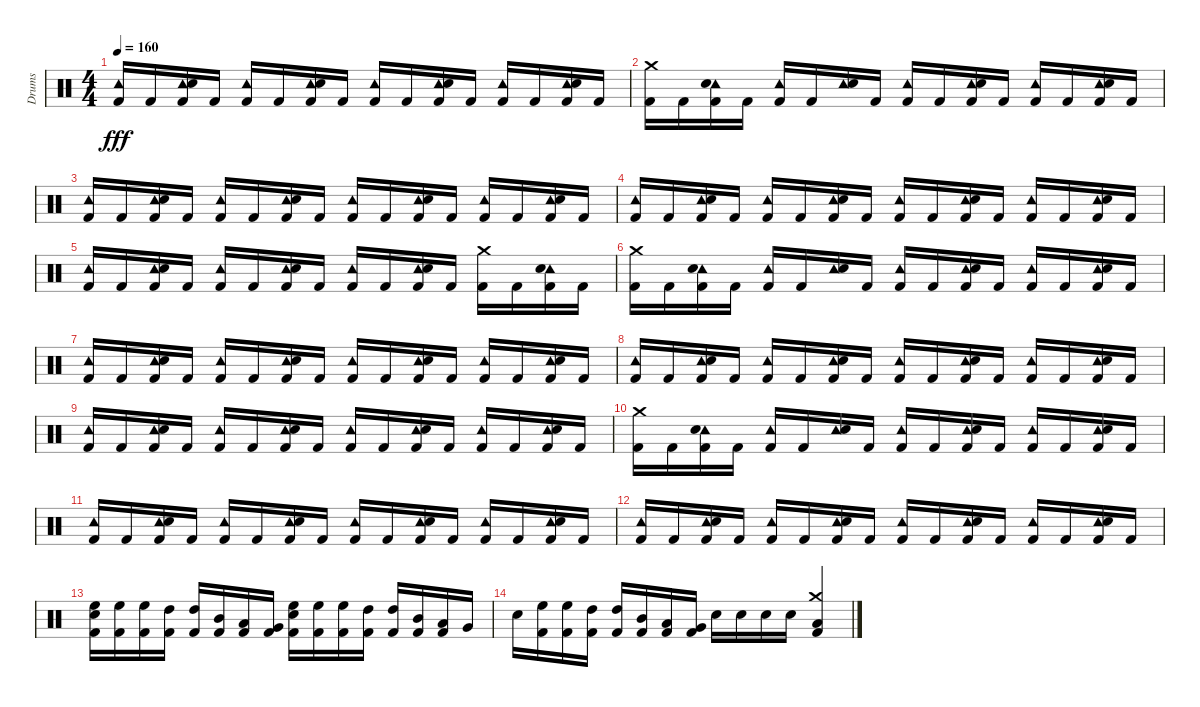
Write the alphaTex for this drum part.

\track ("Drums" "Drums") {instrument percussion}
\staff {score}
\articulation defaults
\ts (4 4)
\tempo 160
\clef neutral
\ks c
("Kick (hit) 2" "Tambourine (hit)").16{dy fff} "Kick (hit) 2".16 ("Kick (hit) 2" "Tambourine (hit)" "Electric Snare (hit)").16 "Kick (hit) 2".16 ("Kick (hit) 2" "Tambourine (hit)").16 "Kick (hit) 2".16 ("Kick (hit) 2" "Tambourine (hit)" "Electric Snare (hit)").16 "Kick (hit) 2".16 ("Kick (hit) 2" "Tambourine (hit)").16 "Kick (hit) 2".16 ("Kick (hit) 2" "Tambourine (hit)" "Electric Snare (hit)").16 "Kick (hit) 2".16 ("Kick (hit) 2" "Tambourine (hit)").16 "Kick (hit) 2".16 ("Kick (hit) 2" "Tambourine (hit)" "Electric Snare (hit)").16 "Kick (hit) 2".16 |
("Crash medium (hit)" "Kick (hit) 2").16 "Kick (hit) 2".16 ("Kick (hit) 2" "Tambourine (hit)" "Electric Snare (hit)").16 "Kick (hit) 2".16 ("Kick (hit) 2" "Tambourine (hit)").16 "Kick (hit) 2".16 ("Tambourine (hit)" "Electric Snare (hit)").16 "Kick (hit) 2".16 ("Kick (hit) 2" "Tambourine (hit)").16 "Kick (hit) 2".16 ("Kick (hit) 2" "Tambourine (hit)" "Electric Snare (hit)").16 "Kick (hit) 2".16 ("Kick (hit) 2" "Tambourine (hit)").16 "Kick (hit) 2".16 ("Kick (hit) 2" "Tambourine (hit)" "Electric Snare (hit)").16 "Kick (hit) 2".16 |
("Kick (hit) 2" "Tambourine (hit)").16 "Kick (hit) 2".16 ("Kick (hit) 2" "Tambourine (hit)" "Electric Snare (hit)").16 "Kick (hit) 2".16 ("Kick (hit) 2" "Tambourine (hit)").16 "Kick (hit) 2".16 ("Kick (hit) 2" "Tambourine (hit)" "Electric Snare (hit)").16 "Kick (hit) 2".16 ("Kick (hit) 2" "Tambourine (hit)").16 "Kick (hit) 2".16 ("Kick (hit) 2" "Tambourine (hit)" "Electric Snare (hit)").16 "Kick (hit) 2".16 ("Kick (hit) 2" "Tambourine (hit)").16 "Kick (hit) 2".16 ("Kick (hit) 2" "Tambourine (hit)" "Electric Snare (hit)").16 "Kick (hit) 2".16 |
("Kick (hit) 2" "Tambourine (hit)").16 "Kick (hit) 2".16 ("Kick (hit) 2" "Tambourine (hit)" "Electric Snare (hit)").16 "Kick (hit) 2".16 ("Kick (hit) 2" "Tambourine (hit)").16 "Kick (hit) 2".16 ("Kick (hit) 2" "Tambourine (hit)" "Electric Snare (hit)").16 "Kick (hit) 2".16 ("Kick (hit) 2" "Tambourine (hit)").16 "Kick (hit) 2".16 ("Kick (hit) 2" "Tambourine (hit)" "Electric Snare (hit)").16 "Kick (hit) 2".16 ("Kick (hit) 2" "Tambourine (hit)").16 "Kick (hit) 2".16 ("Kick (hit) 2" "Tambourine (hit)" "Electric Snare (hit)").16 "Kick (hit) 2".16 |
("Kick (hit) 2" "Tambourine (hit)").16 "Kick (hit) 2".16 ("Kick (hit) 2" "Tambourine (hit)" "Electric Snare (hit)").16 "Kick (hit) 2".16 ("Kick (hit) 2" "Tambourine (hit)").16 "Kick (hit) 2".16 ("Kick (hit) 2" "Tambourine (hit)" "Electric Snare (hit)").16 "Kick (hit) 2".16 ("Kick (hit) 2" "Tambourine (hit)").16 "Kick (hit) 2".16 ("Kick (hit) 2" "Tambourine (hit)" "Electric Snare (hit)").16 "Kick (hit) 2".16 ("Crash medium (hit)" "Kick (hit) 2").16 "Kick (hit) 2".16 ("Kick (hit) 2" "Tambourine (hit)" "Electric Snare (hit)").16 "Kick (hit) 2".16 |
("Crash medium (hit)" "Kick (hit) 2").16 "Kick (hit) 2".16 ("Kick (hit) 2" "Tambourine (hit)" "Electric Snare (hit)").16 "Kick (hit) 2".16 ("Kick (hit) 2" "Tambourine (hit)").16 "Kick (hit) 2".16 ("Tambourine (hit)" "Electric Snare (hit)").16 "Kick (hit) 2".16 ("Kick (hit) 2" "Tambourine (hit)").16 "Kick (hit) 2".16 ("Kick (hit) 2" "Tambourine (hit)" "Electric Snare (hit)").16 "Kick (hit) 2".16 ("Kick (hit) 2" "Tambourine (hit)").16 "Kick (hit) 2".16 ("Kick (hit) 2" "Tambourine (hit)" "Electric Snare (hit)").16 "Kick (hit) 2".16 |
("Kick (hit) 2" "Tambourine (hit)").16 "Kick (hit) 2".16 ("Kick (hit) 2" "Tambourine (hit)" "Electric Snare (hit)").16 "Kick (hit) 2".16 ("Kick (hit) 2" "Tambourine (hit)").16 "Kick (hit) 2".16 ("Kick (hit) 2" "Tambourine (hit)" "Electric Snare (hit)").16 "Kick (hit) 2".16 ("Kick (hit) 2" "Tambourine (hit)").16 "Kick (hit) 2".16 ("Kick (hit) 2" "Tambourine (hit)" "Electric Snare (hit)").16 "Kick (hit) 2".16 ("Kick (hit) 2" "Tambourine (hit)").16 "Kick (hit) 2".16 ("Kick (hit) 2" "Tambourine (hit)" "Electric Snare (hit)").16 "Kick (hit) 2".16 |
("Kick (hit) 2" "Tambourine (hit)").16 "Kick (hit) 2".16 ("Kick (hit) 2" "Tambourine (hit)" "Electric Snare (hit)").16 "Kick (hit) 2".16 ("Kick (hit) 2" "Tambourine (hit)").16 "Kick (hit) 2".16 ("Kick (hit) 2" "Tambourine (hit)" "Electric Snare (hit)").16 "Kick (hit) 2".16 ("Kick (hit) 2" "Tambourine (hit)").16 "Kick (hit) 2".16 ("Kick (hit) 2" "Tambourine (hit)" "Electric Snare (hit)").16 "Kick (hit) 2".16 ("Kick (hit) 2" "Tambourine (hit)").16 "Kick (hit) 2".16 ("Kick (hit) 2" "Tambourine (hit)" "Electric Snare (hit)").16 "Kick (hit) 2".16 |
("Kick (hit) 2" "Tambourine (hit)").16 "Kick (hit) 2".16 ("Kick (hit) 2" "Tambourine (hit)" "Electric Snare (hit)").16 "Kick (hit) 2".16 ("Kick (hit) 2" "Tambourine (hit)").16 "Kick (hit) 2".16 ("Kick (hit) 2" "Tambourine (hit)" "Electric Snare (hit)").16 "Kick (hit) 2".16 ("Kick (hit) 2" "Tambourine (hit)").16 "Kick (hit) 2".16 ("Kick (hit) 2" "Tambourine (hit)" "Electric Snare (hit)").16 "Kick (hit) 2".16 ("Kick (hit) 2" "Tambourine (hit)").16 "Kick (hit) 2".16 ("Kick (hit) 2" "Tambourine (hit)" "Electric Snare (hit)").16 "Kick (hit) 2".16 |
("Crash medium (hit)" "Kick (hit) 2").16 "Kick (hit) 2".16 ("Kick (hit) 2" "Tambourine (hit)" "Electric Snare (hit)").16 "Kick (hit) 2".16 ("Kick (hit) 2" "Tambourine (hit)").16 "Kick (hit) 2".16 ("Tambourine (hit)" "Electric Snare (hit)").16 "Kick (hit) 2".16 ("Kick (hit) 2" "Tambourine (hit)").16 "Kick (hit) 2".16 ("Kick (hit) 2" "Tambourine (hit)" "Electric Snare (hit)").16 "Kick (hit) 2".16 ("Kick (hit) 2" "Tambourine (hit)").16 "Kick (hit) 2".16 ("Kick (hit) 2" "Tambourine (hit)" "Electric Snare (hit)").16 "Kick (hit) 2".16 |
("Kick (hit) 2" "Tambourine (hit)").16 "Kick (hit) 2".16 ("Kick (hit) 2" "Tambourine (hit)" "Electric Snare (hit)").16 "Kick (hit) 2".16 ("Kick (hit) 2" "Tambourine (hit)").16 "Kick (hit) 2".16 ("Kick (hit) 2" "Tambourine (hit)" "Electric Snare (hit)").16 "Kick (hit) 2".16 ("Kick (hit) 2" "Tambourine (hit)").16 "Kick (hit) 2".16 ("Kick (hit) 2" "Tambourine (hit)" "Electric Snare (hit)").16 "Kick (hit) 2".16 ("Kick (hit) 2" "Tambourine (hit)").16 "Kick (hit) 2".16 ("Kick (hit) 2" "Tambourine (hit)" "Electric Snare (hit)").16 "Kick (hit) 2".16 |
("Kick (hit) 2" "Tambourine (hit)").16 "Kick (hit) 2".16 ("Kick (hit) 2" "Tambourine (hit)" "Electric Snare (hit)").16 "Kick (hit) 2".16 ("Kick (hit) 2" "Tambourine (hit)").16 "Kick (hit) 2".16 ("Kick (hit) 2" "Tambourine (hit)" "Electric Snare (hit)").16 "Kick (hit) 2".16 ("Kick (hit) 2" "Tambourine (hit)").16 "Kick (hit) 2".16 ("Kick (hit) 2" "Tambourine (hit)" "Electric Snare (hit)").16 "Kick (hit) 2".16 ("Kick (hit) 2" "Tambourine (hit)").16 "Kick (hit) 2".16 ("Kick (hit) 2" "Tambourine (hit)" "Electric Snare (hit)").16 "Kick (hit) 2".16 |
("Electric Snare (hit)" "Kick (hit) 2" "High Floor Tom (hit)").16 ("High Floor Tom (hit)" "Kick (hit) 2").16 ("High Floor Tom (hit)" "Kick (hit) 2").16 ("High Tom (hit)" "Kick (hit) 2").16 ("High Tom (hit)" "Kick (hit) 2").16 ("Mid Tom (hit)" "Kick (hit) 2").16 ("Low Tom (hit)" "Kick (hit) 2").16 ("Very Low Tom (hit)" "Kick (hit) 2").16 ("Electric Snare (hit)" "Kick (hit) 2" "High Floor Tom (hit)").16 ("High Floor Tom (hit)" "Kick (hit) 2").16 ("High Floor Tom (hit)" "Kick (hit) 2").16 ("High Tom (hit)" "Kick (hit) 2").16 ("High Tom (hit)" "Kick (hit) 2").16 ("Mid Tom (hit)" "Kick (hit) 2").16 ("Low Tom (hit)" "Kick (hit) 2").16 "Very Low Tom (hit)".16 |
"Electric Snare (hit)".16 ("High Floor Tom (hit)" "Kick (hit) 2").16 ("High Floor Tom (hit)" "Kick (hit) 2").16 ("High Tom (hit)" "Kick (hit) 2").16 ("High Tom (hit)" "Kick (hit) 2").16 ("Mid Tom (hit)" "Kick (hit) 2").16 ("Low Tom (hit)" "Kick (hit) 2").16 ("Very Low Tom (hit)" "Kick (hit) 2").16 "Electric Snare (hit)".16 "Electric Snare (hit)".16 "Electric Snare (hit)".16 "Electric Snare (hit)".16 ("Crash medium (hit)" "Low Tom (hit)" "Kick (hit) 2").4
